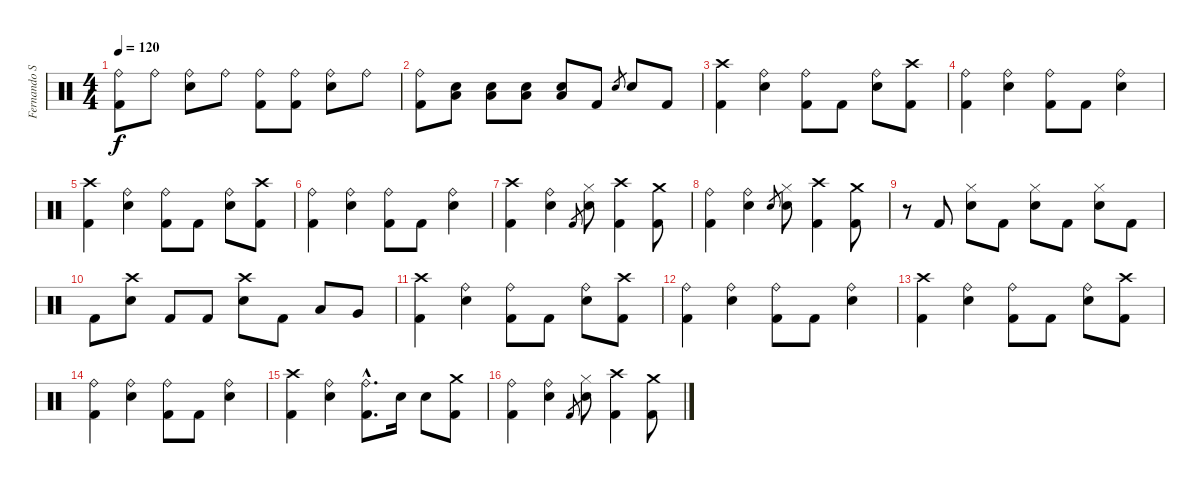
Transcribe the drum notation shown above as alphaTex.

\track ("Fernando Scarcella" "Fernando S") {instrument percussion}
\staff {score}
\articulation defaults
\ts (4 4)
\tempo 120
\clef neutral
\ks c
("Ride (bell)" "Kick (hit) 2").8{dy f} "Ride (bell)".8 ("Ride (bell)" "Snare (hit) 2").8 "Ride (bell)".8 ("Ride (bell)" "Kick (hit) 2").8 ("Ride (bell)" "Kick (hit) 2").8 ("Ride (bell)" "Snare (hit) 2").8 "Ride (bell)".8 |
("Ride (bell)" "Kick (hit) 2").8 ("Low Tom (hit)" "Snare (hit) 2").8 ("Low Tom (hit)" "Snare (hit) 2").8 ("Low Tom (hit)" "Snare (hit) 2").8 ("Low Tom (hit)" "Snare (hit) 2").8 "Kick (hit) 2".8 "Snare (hit) 2".8{gr} "Snare (hit) 2".8 "Kick (hit) 2".8 |
("Crash high (hit)" "Kick (hit) 2").4 ("Ride (bell)" "Snare (hit) 2").4 ("Ride (bell)" "Kick (hit) 2").8 "Kick (hit) 2".8 ("Ride (bell)" "Snare (hit) 2").8 ("Crash high (hit)" "Kick (hit) 2").8 |
("Ride (bell)" "Kick (hit) 2").4 ("Ride (bell)" "Snare (hit) 2").4 ("Ride (bell)" "Kick (hit) 2").8 "Kick (hit) 2".8 ("Ride (bell)" "Snare (hit) 2").4 |
("Crash high (hit)" "Kick (hit) 2").4 ("Ride (bell)" "Snare (hit) 2").4 ("Ride (bell)" "Kick (hit) 2").8 "Kick (hit) 2".8 ("Ride (bell)" "Snare (hit) 2").8 ("Crash high (hit)" "Kick (hit) 2").8 |
("Ride (bell)" "Kick (hit) 2").4 ("Ride (bell)" "Snare (hit) 2").4 ("Ride (bell)" "Kick (hit) 2").8 "Kick (hit) 2".8 ("Ride (bell)" "Snare (hit) 2").4 |
("Crash high (hit)" "Kick (hit) 2").4 ("Ride (bell)" "Snare (hit) 2").4 "Kick (hit) 2".8{gr} ("Hi-Hat (closed)" "Snare (hit) 2").8 ("Crash high (hit)" "Kick (hit) 2").4 ("Crash medium (hit)" "Kick (hit) 2").8 |
("Ride (bell)" "Kick (hit) 2").4 ("Ride (bell)" "Snare (hit) 2").4 "Snare (hit) 2".8{gr} ("Hi-Hat (closed)" "Snare (hit) 2").8 ("Crash high (hit)" "Kick (hit) 2").4 ("Crash medium (hit)" "Kick (hit) 2").8 |
r.8 "Kick (hit) 2".8 ("Snare (hit) 2" "Hi-Hat (closed)").8 "Kick (hit) 2".8 ("Snare (hit) 2" "Hi-Hat (closed)").8 "Kick (hit) 2".8 ("Snare (hit) 2" "Hi-Hat (closed)").8 "Kick (hit) 2".8 |
"Kick (hit) 2".8 ("Snare (hit) 2" "Crash high (hit)").8 "Kick (hit) 2".8 "Kick (hit) 2".8 ("Snare (hit) 2" "Crash high (hit)").8 "Kick (hit) 2".8 "Low Tom (hit)".8 "Very Low Tom (hit)".8 |
("Crash high (hit)" "Kick (hit) 2").4 ("Ride (bell)" "Snare (hit) 2").4 ("Ride (bell)" "Kick (hit) 2").8 "Kick (hit) 2".8 ("Ride (bell)" "Snare (hit) 2").8 ("Crash high (hit)" "Kick (hit) 2").8 |
("Ride (bell)" "Kick (hit) 2").4 ("Ride (bell)" "Snare (hit) 2").4 ("Ride (bell)" "Kick (hit) 2").8 "Kick (hit) 2".8 ("Ride (bell)" "Snare (hit) 2").4 |
("Crash high (hit)" "Kick (hit) 2").4 ("Ride (bell)" "Snare (hit) 2").4 ("Ride (bell)" "Kick (hit) 2").8 "Kick (hit) 2".8 ("Ride (bell)" "Snare (hit) 2").8 ("Crash high (hit)" "Kick (hit) 2").8 |
("Ride (bell)" "Kick (hit) 2").4 ("Ride (bell)" "Snare (hit) 2").4 ("Ride (bell)" "Kick (hit) 2").8 "Kick (hit) 2".8 ("Ride (bell)" "Snare (hit) 2").4 |
("Crash high (hit)" "Kick (hit) 2").4 ("Ride (bell)" "Snare (hit) 2").4 ("Ride (bell)"{hac} "Kick (hit) 2"{hac}).8{d} "Snare (hit) 2".16 "Snare (hit) 2".8 ("Crash medium (hit)" "Kick (hit) 2").8 |
("Ride (bell)" "Kick (hit) 2").4 ("Ride (bell)" "Snare (hit) 2").4 "Kick (hit) 2".8{gr} ("Hi-Hat (closed)" "Snare (hit) 2").8 ("Crash high (hit)" "Kick (hit) 2").4 ("Crash medium (hit)" "Kick (hit) 2").8
